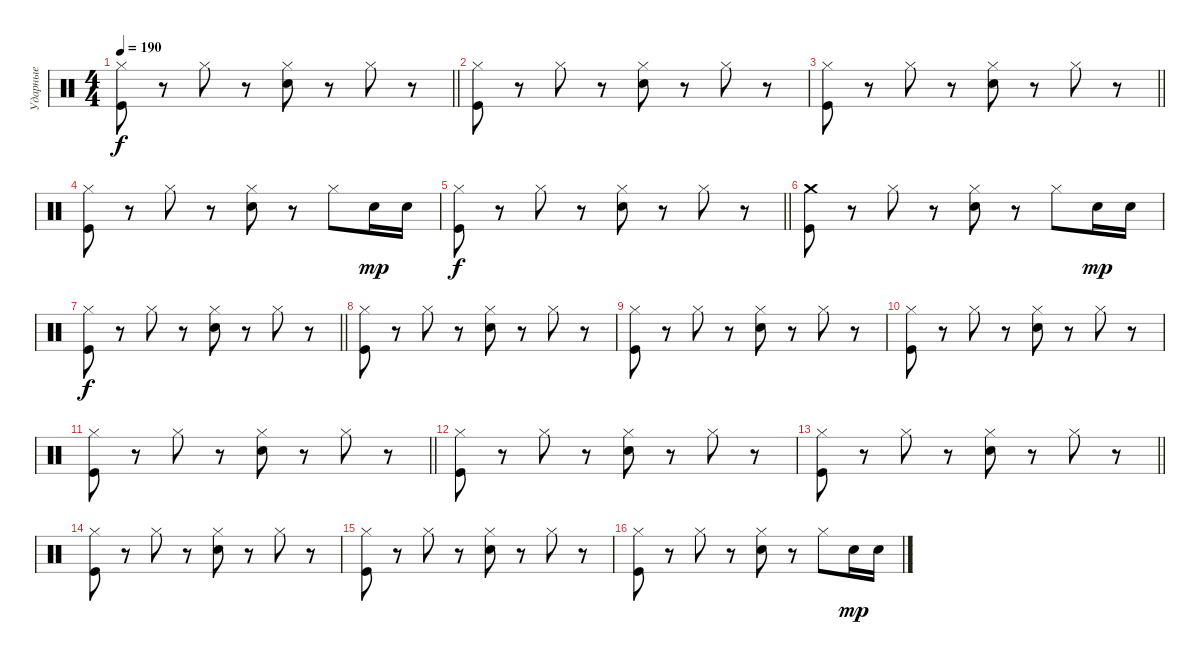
\track ("Ударные" "Ударные") {instrument percussion}
\staff {score}
\articulation defaults
\ts (4 4)
\tempo 190
\clef neutral
\barLineRight lightlight
\ks c
("Hi-Hat (closed)" "Kick (hit)").8{dy f} r.8 "Hi-Hat (closed)".8 r.8 ("Hi-Hat (closed)" "Electric Snare (hit)").8 r.8 "Hi-Hat (closed)".8 r.8 |
("Hi-Hat (closed)" "Kick (hit)").8 r.8 "Hi-Hat (closed)".8 r.8 ("Hi-Hat (closed)" "Electric Snare (hit)").8 r.8 "Hi-Hat (closed)".8 r.8 |
\barLineRight lightlight
("Hi-Hat (closed)" "Kick (hit)").8 r.8 "Hi-Hat (closed)".8 r.8 ("Hi-Hat (closed)" "Electric Snare (hit)").8 r.8 "Hi-Hat (closed)".8 r.8 |
("Hi-Hat (closed)" "Kick (hit)").8 r.8 "Hi-Hat (closed)".8 r.8 ("Hi-Hat (closed)" "Electric Snare (hit)").8 r.8 "Hi-Hat (closed)".8 "Electric Snare (hit)".16{dy mp} "Electric Snare (hit)".16 |
\barLineRight lightlight
("Hi-Hat (closed)" "Kick (hit)").8{dy f} r.8 "Hi-Hat (closed)".8 r.8 ("Hi-Hat (closed)" "Electric Snare (hit)").8 r.8 "Hi-Hat (closed)".8 r.8 |
\section ("" " ")
("Crash medium (hit)" "Kick (hit)").8 r.8 "Hi-Hat (closed)".8 r.8 ("Hi-Hat (closed)" "Electric Snare (hit)").8 r.8 "Hi-Hat (closed)".8 "Electric Snare (hit)".16{dy mp} "Electric Snare (hit)".16 |
\barLineRight lightlight
("Hi-Hat (closed)" "Kick (hit)").8{dy f} r.8 "Hi-Hat (closed)".8 r.8 ("Hi-Hat (closed)" "Electric Snare (hit)").8 r.8 "Hi-Hat (closed)".8 r.8 |
("Hi-Hat (closed)" "Kick (hit)").8 r.8 "Hi-Hat (closed)".8 r.8 ("Hi-Hat (closed)" "Electric Snare (hit)").8 r.8 "Hi-Hat (closed)".8 r.8 |
("Hi-Hat (closed)" "Kick (hit)").8 r.8 "Hi-Hat (closed)".8 r.8 ("Hi-Hat (closed)" "Electric Snare (hit)").8 r.8 "Hi-Hat (closed)".8 r.8 |
("Hi-Hat (closed)" "Kick (hit)").8 r.8 "Hi-Hat (closed)".8 r.8 ("Hi-Hat (closed)" "Electric Snare (hit)").8 r.8 "Hi-Hat (closed)".8 r.8 |
\barLineRight lightlight
("Hi-Hat (closed)" "Kick (hit)").8 r.8 "Hi-Hat (closed)".8 r.8 ("Hi-Hat (closed)" "Electric Snare (hit)").8 r.8 "Hi-Hat (closed)".8 r.8 |
\section ("" " ")
("Hi-Hat (closed)" "Kick (hit)").8 r.8 "Hi-Hat (closed)".8 r.8 ("Hi-Hat (closed)" "Electric Snare (hit)").8 r.8 "Hi-Hat (closed)".8 r.8 |
\barLineRight lightlight
("Hi-Hat (closed)" "Kick (hit)").8 r.8 "Hi-Hat (closed)".8 r.8 ("Hi-Hat (closed)" "Electric Snare (hit)").8 r.8 "Hi-Hat (closed)".8 r.8 |
\section ("" " ")
("Hi-Hat (closed)" "Kick (hit)").8 r.8 "Hi-Hat (closed)".8 r.8 ("Hi-Hat (closed)" "Electric Snare (hit)").8 r.8 "Hi-Hat (closed)".8 r.8 |
("Hi-Hat (closed)" "Kick (hit)").8 r.8 "Hi-Hat (closed)".8 r.8 ("Hi-Hat (closed)" "Electric Snare (hit)").8 r.8 "Hi-Hat (closed)".8 r.8 |
("Hi-Hat (closed)" "Kick (hit)").8 r.8 "Hi-Hat (closed)".8 r.8 ("Hi-Hat (closed)" "Electric Snare (hit)").8 r.8 "Hi-Hat (closed)".8 "Electric Snare (hit)".16{dy mp} "Electric Snare (hit)".16
